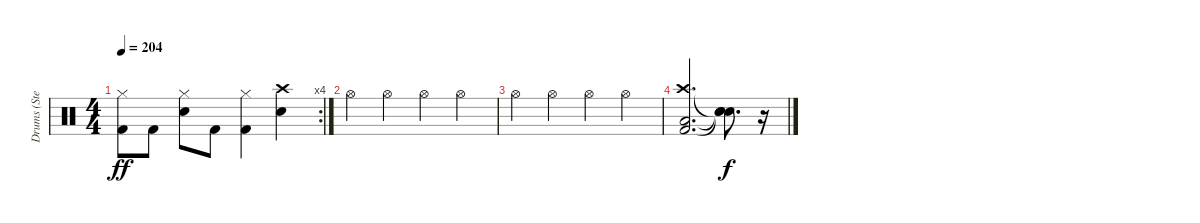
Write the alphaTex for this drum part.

\track ("Drums (Steven)" "Drums (Ste") {instrument percussion}
\staff {score}
\articulation defaults
\rc 4
\ts (4 4)
\tempo 204
\clef neutral
\ks c
("Kick (hit) 2" "Hi-Hat (closed)").8{dy ff} "Kick (hit) 2".8 ("Snare (hit) 2" "Hi-Hat (closed)").8 "Kick (hit) 2".8 ("Kick (hit) 2" "Hi-Hat (closed)").4 ("Snare (hit) 2" "Crash high (hit)").4 |
"Hi-Hat (open)".4 "Hi-Hat (open)".4 "Hi-Hat (open)".4 "Hi-Hat (open)".4 |
"Hi-Hat (open)".4 "Hi-Hat (open)".4 "Hi-Hat (open)".4 "Hi-Hat (open)".4 |
("Kick (hit) 2" "Low Floor Tom (hit)" "Crash high (hit)").2{d} ("Snare (hit)"{t} "Snare (hit)"{t} "Snare (hit)"{t}).8{d dy f} r.16
